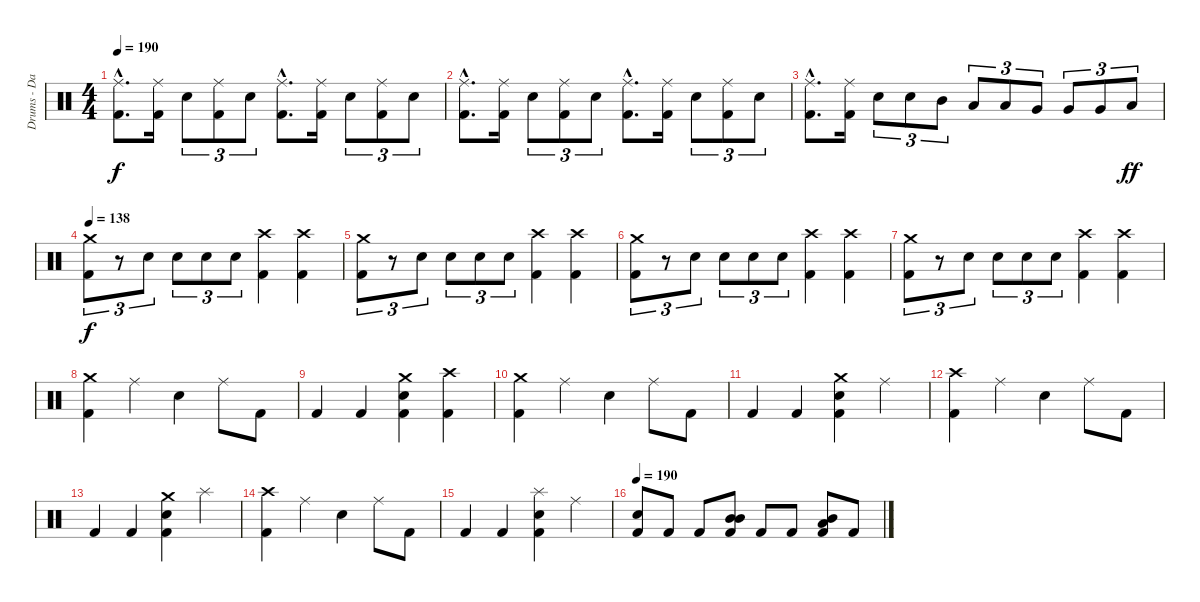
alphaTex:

\track ("Drums - Daniel Zimmermann" "Drums - Da") {instrument percussion}
\staff {score}
\articulation defaults
\ts (4 4)
\tempo 190
\clef neutral
\ks c
("Kick (hit) 2"{hac} "Ride (middle)"{hac}).8{d dy f} ("Kick (hit) 2" "Ride (middle)").16 "Electric Snare (hit)".8{tu (3 2)} ("Kick (hit) 2" "Ride (middle)").8{tu (3 2)} "Electric Snare (hit)".8{tu (3 2)} ("Kick (hit) 2"{hac} "Ride (middle)"{hac}).8{d} ("Kick (hit) 2" "Ride (middle)").16 "Electric Snare (hit)".8{tu (3 2)} ("Kick (hit) 2" "Ride (middle)").8{tu (3 2)} "Electric Snare (hit)".8{tu (3 2)} |
("Kick (hit) 2"{hac} "Ride (middle)"{hac}).8{d} ("Kick (hit) 2" "Ride (middle)").16 "Electric Snare (hit)".8{tu (3 2)} ("Kick (hit) 2" "Ride (middle)").8{tu (3 2)} "Electric Snare (hit)".8{tu (3 2)} ("Kick (hit) 2"{hac} "Ride (middle)"{hac}).8{d} ("Kick (hit) 2" "Ride (middle)").16 "Electric Snare (hit)".8{tu (3 2)} ("Kick (hit) 2" "Ride (middle)").8{tu (3 2)} "Electric Snare (hit)".8{tu (3 2)} |
("Kick (hit) 2"{hac} "Ride (middle)"{hac}).8{d} ("Kick (hit) 2" "Ride (middle)").16 "Electric Snare (hit)".8{tu (3 2)} "Electric Snare (hit)".8{tu (3 2)} "Mid Tom (hit)".8{tu (3 2)} "Low Tom (hit)".8{tu (3 2)} "Low Tom (hit)".8{tu (3 2)} "Very Low Tom (hit)".8{tu (3 2)} "Very Low Tom (hit)".8{tu (3 2)} "Very Low Tom (hit)".8{tu (3 2)} "Low Floor Tom (hit)".8{tu (3 2) dy ff} |
\tempo 138
("Kick (hit) 2" "Crash medium (hit)").8{tu (3 2) dy f} r.8{tu (3 2)} "Electric Snare (hit)".8{tu (3 2)} "Electric Snare (hit)".8{tu (3 2)} "Electric Snare (hit)".8{tu (3 2)} "Electric Snare (hit)".8{tu (3 2)} ("Kick (hit) 2" "Crash high (hit)").4 ("Kick (hit) 2" "Crash high (hit)").4 |
("Kick (hit) 2" "Crash medium (hit)").8{tu (3 2)} r.8{tu (3 2)} "Electric Snare (hit)".8{tu (3 2)} "Electric Snare (hit)".8{tu (3 2)} "Electric Snare (hit)".8{tu (3 2)} "Electric Snare (hit)".8{tu (3 2)} ("Kick (hit) 2" "Crash high (hit)").4 ("Kick (hit) 2" "Crash high (hit)").4 |
("Kick (hit) 2" "Crash medium (hit)").8{tu (3 2)} r.8{tu (3 2)} "Electric Snare (hit)".8{tu (3 2)} "Electric Snare (hit)".8{tu (3 2)} "Electric Snare (hit)".8{tu (3 2)} "Electric Snare (hit)".8{tu (3 2)} ("Kick (hit) 2" "Crash high (hit)").4 ("Kick (hit) 2" "Crash high (hit)").4 |
("Kick (hit) 2" "Crash medium (hit)").8{tu (3 2)} r.8{tu (3 2)} "Electric Snare (hit)".8{tu (3 2)} "Electric Snare (hit)".8{tu (3 2)} "Electric Snare (hit)".8{tu (3 2)} "Electric Snare (hit)".8{tu (3 2)} ("Kick (hit) 2" "Crash high (hit)").4 ("Kick (hit) 2" "Crash high (hit)").4 |
\section ("" "")
("Kick (hit) 2" "Crash medium (hit)").4 "Ride (middle)".4 "Electric Snare (hit)".4 "Ride (middle)".8 "Kick (hit) 2".8 |
"Kick (hit) 2".4 "Kick (hit) 2".4 ("Kick (hit) 2" "Electric Snare (hit)" "Crash medium (hit)").4 ("Kick (hit) 2" "Crash high (hit)").4 |
("Kick (hit) 2" "Crash medium (hit)").4 "Ride (middle)".4 "Electric Snare (hit)".4 "Ride (middle)".8 "Kick (hit) 2".8 |
"Kick (hit) 2".4 "Kick (hit) 2".4 ("Kick (hit) 2" "Electric Snare (hit)" "Crash medium (hit)").4 "Ride (middle)".4 |
("Kick (hit) 2" "Crash high (hit)").4 "Ride (middle)".4 "Electric Snare (hit)".4 "Ride (middle)".8 "Kick (hit) 2".8 |
"Kick (hit) 2".4 "Kick (hit) 2".4 ("Kick (hit) 2" "Electric Snare (hit)" "Crash medium (hit)").4 "Splash (hit)".4 |
("Kick (hit) 2" "Crash high (hit)").4 "Ride (middle)".4 "Electric Snare (hit)".4 "Ride (middle)".8 "Kick (hit) 2".8 |
"Kick (hit) 2".4 "Kick (hit) 2".4 ("Kick (hit) 2" "Electric Snare (hit)" "Splash (hit)").4 "Ride (middle)".4 |
\tempo 190
("Kick (hit) 2" "Electric Snare (hit)").8 "Kick (hit) 2".8 "Kick (hit) 2".8 ("Kick (hit) 2" "Mid Tom (hit)" "Mid Tom (hit)").8 "Kick (hit) 2".8 "Kick (hit) 2".8 ("Kick (hit) 2" "Mid Tom (hit)" "Low Tom (hit)").8 "Kick (hit) 2".8
